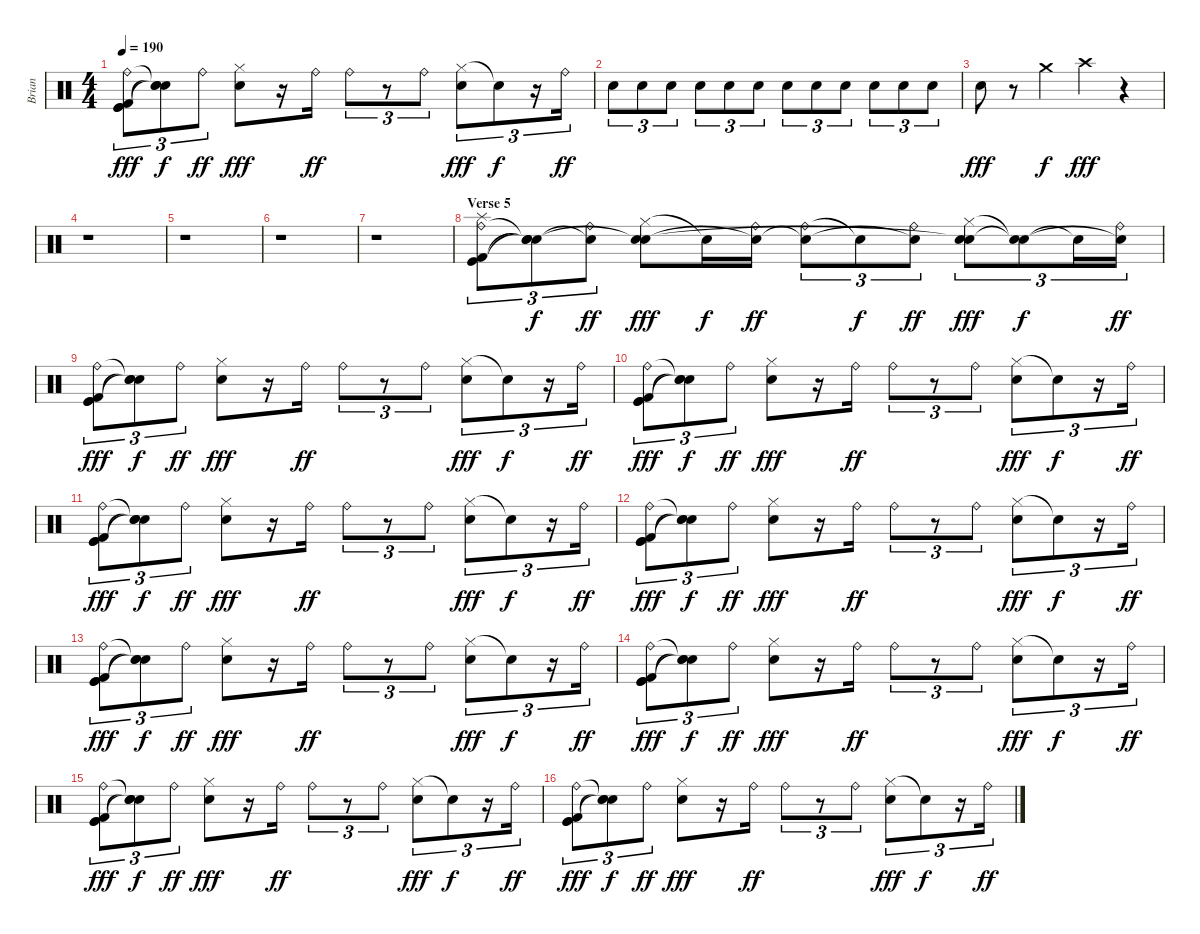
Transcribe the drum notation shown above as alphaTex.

\track ("Brian" "Brian") {instrument percussion}
\staff {score}
\articulation defaults
\ts (4 4)
\tempo 190
\clef neutral
\ks c
("Ride (bell)" "Kick (hit)" "Kick (hit) 2" "Kick (hit)").8{tu (3 2) dy fff} ("Snare (hit)"{t} "Snare (hit)"{t} "Snare (hit)"{t}).8{tu (3 2) dy f} "Ride (bell)".8{tu (3 2) dy ff} ("Hi-Hat (closed)" "Electric Snare (hit)").8{dy fff} r.16 "Ride (bell)".16{dy ff} "Ride (bell)".8{tu (3 2)} r.8{tu (3 2)} "Ride (bell)".8{tu (3 2)} ("Hi-Hat (closed)" "Electric Snare (hit)").8{tu (3 2) dy fff} "Snare (hit)"{t}.8{tu (3 2) dy f} r.16{tu (3 2)} "Ride (bell)".16{tu (3 2) dy ff} |
"Electric Snare (hit)".8{tu (3 2)} "Electric Snare (hit)".8{tu (3 2)} "Electric Snare (hit)".8{tu (3 2)} "Electric Snare (hit)".8{tu (3 2)} "Electric Snare (hit)".8{tu (3 2)} "Electric Snare (hit)".8{tu (3 2)} "Electric Snare (hit)".8{tu (3 2)} "Electric Snare (hit)".8{tu (3 2)} "Electric Snare (hit)".8{tu (3 2)} "Electric Snare (hit)".8{tu (3 2)} "Electric Snare (hit)".8{tu (3 2)} "Electric Snare (hit)".8{tu (3 2)} |
"Electric Snare (hit)".8{dy fff} r.8 "Crash medium (hit)".4{dy f} "Crash high (hit)".4{dy fff} r.4 |
r.1 |
r.1 |
r.1 |
r.1 |
\section ("" "Verse 5")
("Ride (bell)" "Kick (hit)" "Kick (hit) 2" "Splash (hit)").8{tu (3 2)} ("Snare (hit)"{t} "Snare (hit)"{t} "Snare (hit)"{t}).8{tu (3 2) dy f} ("Ride (bell)" "Snare (hit)"{t}).8{tu (3 2) dy ff} ("Hi-Hat (closed)" "Electric Snare (hit)" "Snare (hit)"{t}).8{dy fff} "Snare (hit)"{t}.16{dy f} ("Ride (bell)" "Snare (hit)"{t}).16{dy ff} ("Ride (bell)" "Snare (hit)"{t}).8{tu (3 2)} "Snare (hit)"{t}.8{tu (3 2) dy f} ("Ride (bell)" "Snare (hit)"{t}).8{tu (3 2) dy ff} ("Hi-Hat (closed)" "Electric Snare (hit)" "Snare (hit)"{t}).8{tu (3 2) dy fff} ("Snare (hit)"{t} "Snare (hit)"{t}).8{tu (3 2) dy f} "Snare (hit)"{t}.16{tu (3 2)} ("Ride (bell)" "Snare (hit)"{t}).16{tu (3 2) dy ff} |
("Ride (bell)" "Kick (hit)" "Kick (hit) 2" "Kick (hit)").8{tu (3 2) dy fff} ("Snare (hit)"{t} "Snare (hit)"{t} "Snare (hit)"{t}).8{tu (3 2) dy f} "Ride (bell)".8{tu (3 2) dy ff} ("Hi-Hat (closed)" "Electric Snare (hit)").8{dy fff} r.16 "Ride (bell)".16{dy ff} "Ride (bell)".8{tu (3 2)} r.8{tu (3 2)} "Ride (bell)".8{tu (3 2)} ("Hi-Hat (closed)" "Electric Snare (hit)").8{tu (3 2) dy fff} "Snare (hit)"{t}.8{tu (3 2) dy f} r.16{tu (3 2)} "Ride (bell)".16{tu (3 2) dy ff} |
("Ride (bell)" "Kick (hit)" "Kick (hit) 2" "Kick (hit)").8{tu (3 2) dy fff} ("Snare (hit)"{t} "Snare (hit)"{t} "Snare (hit)"{t}).8{tu (3 2) dy f} "Ride (bell)".8{tu (3 2) dy ff} ("Hi-Hat (closed)" "Electric Snare (hit)").8{dy fff} r.16 "Ride (bell)".16{dy ff} "Ride (bell)".8{tu (3 2)} r.8{tu (3 2)} "Ride (bell)".8{tu (3 2)} ("Hi-Hat (closed)" "Electric Snare (hit)").8{tu (3 2) dy fff} "Snare (hit)"{t}.8{tu (3 2) dy f} r.16{tu (3 2)} "Ride (bell)".16{tu (3 2) dy ff} |
("Ride (bell)" "Kick (hit)" "Kick (hit) 2" "Kick (hit)").8{tu (3 2) dy fff} ("Snare (hit)"{t} "Snare (hit)"{t} "Snare (hit)"{t}).8{tu (3 2) dy f} "Ride (bell)".8{tu (3 2) dy ff} ("Hi-Hat (closed)" "Electric Snare (hit)").8{dy fff} r.16 "Ride (bell)".16{dy ff} "Ride (bell)".8{tu (3 2)} r.8{tu (3 2)} "Ride (bell)".8{tu (3 2)} ("Hi-Hat (closed)" "Electric Snare (hit)").8{tu (3 2) dy fff} "Snare (hit)"{t}.8{tu (3 2) dy f} r.16{tu (3 2)} "Ride (bell)".16{tu (3 2) dy ff} |
("Ride (bell)" "Kick (hit)" "Kick (hit) 2" "Kick (hit)").8{tu (3 2) dy fff} ("Snare (hit)"{t} "Snare (hit)"{t} "Snare (hit)"{t}).8{tu (3 2) dy f} "Ride (bell)".8{tu (3 2) dy ff} ("Hi-Hat (closed)" "Electric Snare (hit)").8{dy fff} r.16 "Ride (bell)".16{dy ff} "Ride (bell)".8{tu (3 2)} r.8{tu (3 2)} "Ride (bell)".8{tu (3 2)} ("Hi-Hat (closed)" "Electric Snare (hit)").8{tu (3 2) dy fff} "Snare (hit)"{t}.8{tu (3 2) dy f} r.16{tu (3 2)} "Ride (bell)".16{tu (3 2) dy ff} |
("Ride (bell)" "Kick (hit)" "Kick (hit) 2" "Kick (hit)").8{tu (3 2) dy fff} ("Snare (hit)"{t} "Snare (hit)"{t} "Snare (hit)"{t}).8{tu (3 2) dy f} "Ride (bell)".8{tu (3 2) dy ff} ("Hi-Hat (closed)" "Electric Snare (hit)").8{dy fff} r.16 "Ride (bell)".16{dy ff} "Ride (bell)".8{tu (3 2)} r.8{tu (3 2)} "Ride (bell)".8{tu (3 2)} ("Hi-Hat (closed)" "Electric Snare (hit)").8{tu (3 2) dy fff} "Snare (hit)"{t}.8{tu (3 2) dy f} r.16{tu (3 2)} "Ride (bell)".16{tu (3 2) dy ff} |
("Ride (bell)" "Kick (hit)" "Kick (hit) 2" "Kick (hit)").8{tu (3 2) dy fff} ("Snare (hit)"{t} "Snare (hit)"{t} "Snare (hit)"{t}).8{tu (3 2) dy f} "Ride (bell)".8{tu (3 2) dy ff} ("Hi-Hat (closed)" "Electric Snare (hit)").8{dy fff} r.16 "Ride (bell)".16{dy ff} "Ride (bell)".8{tu (3 2)} r.8{tu (3 2)} "Ride (bell)".8{tu (3 2)} ("Hi-Hat (closed)" "Electric Snare (hit)").8{tu (3 2) dy fff} "Snare (hit)"{t}.8{tu (3 2) dy f} r.16{tu (3 2)} "Ride (bell)".16{tu (3 2) dy ff} |
("Ride (bell)" "Kick (hit)" "Kick (hit) 2" "Kick (hit)").8{tu (3 2) dy fff} ("Snare (hit)"{t} "Snare (hit)"{t} "Snare (hit)"{t}).8{tu (3 2) dy f} "Ride (bell)".8{tu (3 2) dy ff} ("Hi-Hat (closed)" "Electric Snare (hit)").8{dy fff} r.16 "Ride (bell)".16{dy ff} "Ride (bell)".8{tu (3 2)} r.8{tu (3 2)} "Ride (bell)".8{tu (3 2)} ("Hi-Hat (closed)" "Electric Snare (hit)").8{tu (3 2) dy fff} "Snare (hit)"{t}.8{tu (3 2) dy f} r.16{tu (3 2)} "Ride (bell)".16{tu (3 2) dy ff} |
("Ride (bell)" "Kick (hit)" "Kick (hit) 2" "Kick (hit)").8{tu (3 2) dy fff} ("Snare (hit)"{t} "Snare (hit)"{t} "Snare (hit)"{t}).8{tu (3 2) dy f} "Ride (bell)".8{tu (3 2) dy ff} ("Hi-Hat (closed)" "Electric Snare (hit)").8{dy fff} r.16 "Ride (bell)".16{dy ff} "Ride (bell)".8{tu (3 2)} r.8{tu (3 2)} "Ride (bell)".8{tu (3 2)} ("Hi-Hat (closed)" "Electric Snare (hit)").8{tu (3 2) dy fff} "Snare (hit)"{t}.8{tu (3 2) dy f} r.16{tu (3 2)} "Ride (bell)".16{tu (3 2) dy ff}
